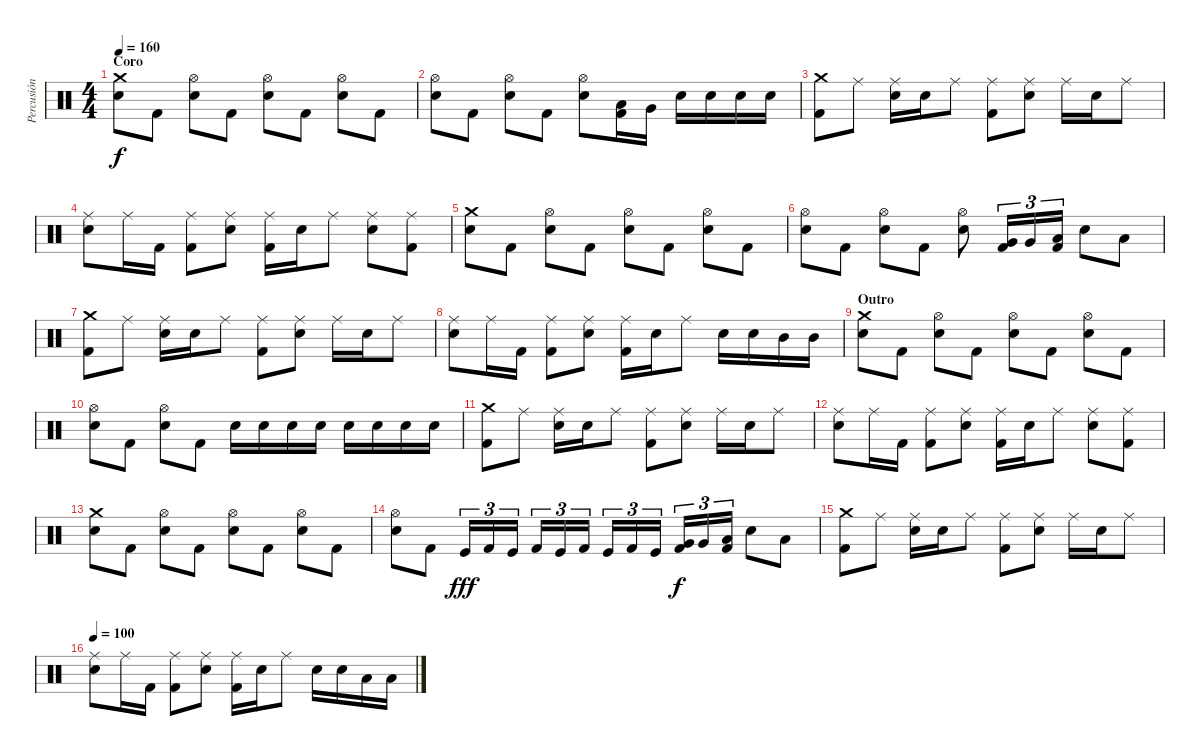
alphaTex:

\track ("Percusión" "Percusión") {instrument percussion}
\staff {score}
\articulation defaults
\ts (4 4)
\section ("" "Coro")
\tempo 160
\clef neutral
\ks c
("Crash medium (hit)" "Electric Snare (hit)").8{dy f} "Kick (hit) 2".8 ("Hi-Hat (open)" "Electric Snare (hit)").8 "Kick (hit) 2".8 ("Hi-Hat (open)" "Electric Snare (hit)").8 "Kick (hit) 2".8 ("Hi-Hat (open)" "Electric Snare (hit)").8 "Kick (hit) 2".8 |
("Hi-Hat (open)" "Electric Snare (hit)").8 "Kick (hit) 2".8 ("Hi-Hat (open)" "Electric Snare (hit)").8 "Kick (hit) 2".8 ("Hi-Hat (open)" "Electric Snare (hit)").8 ("Low Tom (hit)" "Kick (hit) 2").16 "Very Low Tom (hit)".16 "Electric Snare (hit)".16 "Electric Snare (hit)".16 "Electric Snare (hit)".16 "Electric Snare (hit)".16 |
("Crash medium (hit)" "Kick (hit) 2").8 "Ride (middle)".8 ("Ride (middle)" "Electric Snare (hit)").16 "Electric Snare (hit)".16 "Ride (middle)".8 ("Ride (middle)" "Kick (hit) 2").8 ("Ride (middle)" "Electric Snare (hit)").8 "Ride (middle)".16 "Electric Snare (hit)".16 "Ride (middle)".8 |
("Ride (middle)" "Electric Snare (hit)").8 "Ride (middle)".16 "Kick (hit) 2".16 ("Ride (middle)" "Kick (hit) 2").8 ("Ride (middle)" "Electric Snare (hit)").8 ("Ride (middle)" "Kick (hit) 2").16 "Electric Snare (hit)".16 "Ride (middle)".8 ("Ride (middle)" "Electric Snare (hit)").8 ("Ride (middle)" "Kick (hit) 2").8 |
("Crash medium (hit)" "Electric Snare (hit)").8 "Kick (hit) 2".8 ("Hi-Hat (open)" "Electric Snare (hit)").8 "Kick (hit) 2".8 ("Hi-Hat (open)" "Electric Snare (hit)").8 "Kick (hit) 2".8 ("Hi-Hat (open)" "Electric Snare (hit)").8 "Kick (hit) 2".8 |
("Hi-Hat (open)" "Electric Snare (hit)").8 "Kick (hit) 2".8 ("Hi-Hat (open)" "Electric Snare (hit)").8 "Kick (hit) 2".8 ("Hi-Hat (open)" "Electric Snare (hit)").8 ("Very Low Tom (hit)" "Kick (hit) 2").16{tu (3 2)} "Very Low Tom (hit)".16{tu (3 2)} ("Low Floor Tom (hit)" "Kick (hit) 2").16{tu (3 2)} "Electric Snare (hit)".8 "Low Tom (hit)".8 |
("Crash medium (hit)" "Kick (hit) 2").8 "Ride (middle)".8 ("Ride (middle)" "Electric Snare (hit)").16 "Electric Snare (hit)".16 "Ride (middle)".8 ("Ride (middle)" "Kick (hit) 2").8 ("Ride (middle)" "Electric Snare (hit)").8 "Ride (middle)".16 "Electric Snare (hit)".16 "Ride (middle)".8 |
("Ride (middle)" "Electric Snare (hit)").8 "Ride (middle)".16 "Kick (hit) 2".16 ("Ride (middle)" "Kick (hit) 2").8 ("Ride (middle)" "Electric Snare (hit)").8 ("Ride (middle)" "Kick (hit) 2").16 "Electric Snare (hit)".16 "Ride (middle)".8 "Electric Snare (hit)".16 "Electric Snare (hit)".16 "Mid Tom (hit)".16 "Mid Tom (hit)".16 |
\section ("" "Outro")
("Crash medium (hit)" "Electric Snare (hit)").8 "Kick (hit) 2".8 ("Hi-Hat (open)" "Electric Snare (hit)").8 "Kick (hit) 2".8 ("Hi-Hat (open)" "Electric Snare (hit)").8 "Kick (hit) 2".8 ("Hi-Hat (open)" "Electric Snare (hit)").8 "Kick (hit) 2".8 |
("Hi-Hat (open)" "Electric Snare (hit)").8 "Kick (hit) 2".8 ("Hi-Hat (open)" "Electric Snare (hit)").8 "Kick (hit) 2".8 "Electric Snare (hit)".16 "Electric Snare (hit)".16 "Electric Snare (hit)".16 "Electric Snare (hit)".16 "Electric Snare (hit)".16 "Electric Snare (hit)".16 "Electric Snare (hit)".16 "Electric Snare (hit)".16 |
("Crash medium (hit)" "Kick (hit) 2").8 "Ride (middle)".8 ("Ride (middle)" "Electric Snare (hit)").16 "Electric Snare (hit)".16 "Ride (middle)".8 ("Ride (middle)" "Kick (hit) 2").8 ("Ride (middle)" "Electric Snare (hit)").8 "Ride (middle)".16 "Electric Snare (hit)".16 "Ride (middle)".8 |
("Ride (middle)" "Electric Snare (hit)").8 "Ride (middle)".16 "Kick (hit) 2".16 ("Ride (middle)" "Kick (hit) 2").8 ("Ride (middle)" "Electric Snare (hit)").8 ("Ride (middle)" "Kick (hit) 2").16 "Electric Snare (hit)".16 "Ride (middle)".8 ("Ride (middle)" "Electric Snare (hit)").8 ("Ride (middle)" "Kick (hit) 2").8 |
("Crash medium (hit)" "Electric Snare (hit)").8 "Kick (hit) 2".8 ("Hi-Hat (open)" "Electric Snare (hit)").8 "Kick (hit) 2".8 ("Hi-Hat (open)" "Electric Snare (hit)").8 "Kick (hit) 2".8 ("Hi-Hat (open)" "Electric Snare (hit)").8 "Kick (hit) 2".8 |
("Hi-Hat (open)" "Electric Snare (hit)").8 "Kick (hit) 2".8 "Kick (hit)".16{tu (3 2) dy fff} "Kick (hit) 2".16{tu (3 2)} "Kick (hit)".16{tu (3 2)} "Kick (hit) 2".16{tu (3 2)} "Kick (hit)".16{tu (3 2)} "Kick (hit) 2".16{tu (3 2)} "Kick (hit)".16{tu (3 2)} "Kick (hit) 2".16{tu (3 2)} "Kick (hit)".16{tu (3 2)} ("Very Low Tom (hit)" "Kick (hit) 2").16{tu (3 2) dy f} "Very Low Tom (hit)".16{tu (3 2)} ("Low Floor Tom (hit)" "Kick (hit) 2").16{tu (3 2)} "Electric Snare (hit)".8 "Low Tom (hit)".8 |
("Crash medium (hit)" "Kick (hit) 2").8 "Ride (middle)".8 ("Ride (middle)" "Electric Snare (hit)").16 "Electric Snare (hit)".16 "Ride (middle)".8 ("Ride (middle)" "Kick (hit) 2").8 ("Ride (middle)" "Electric Snare (hit)").8 "Ride (middle)".16 "Electric Snare (hit)".16 "Ride (middle)".8 |
\tempo 100
("Ride (middle)" "Electric Snare (hit)").8 "Ride (middle)".16 "Kick (hit) 2".16 ("Ride (middle)" "Kick (hit) 2").8 ("Ride (middle)" "Electric Snare (hit)").8 ("Ride (middle)" "Kick (hit) 2").16 "Electric Snare (hit)".16 "Ride (middle)".8 "Electric Snare (hit)".16 "Electric Snare (hit)".16 "Low Tom (hit)".16 "Low Tom (hit)".16
